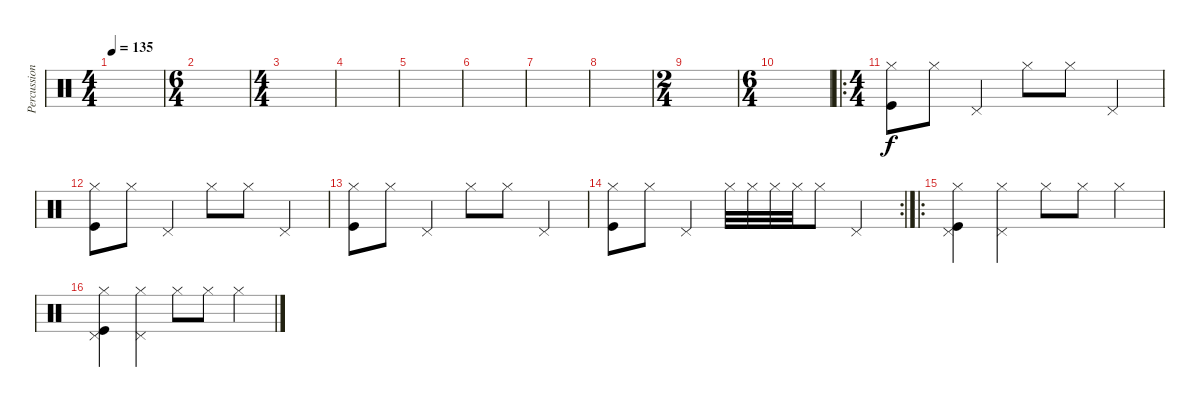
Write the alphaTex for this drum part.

\track ("Percussion" "Percussion") {instrument percussion}
\staff {score}
\articulation defaults
\ts (4 4)
\tempo 135
\clef neutral
\ks c
|
\ts (6 4)
|
\ts (4 4)
|
|
|
|
|
|
\ts (2 4)
|
\ts (6 4)
|
\ro
\ts (4 4)
("Hi-Hat (closed)" "Kick (hit)").8 "Hi-Hat (closed)".8 "Pedal Hi-Hat (hit)".4 "Hi-Hat (closed)".8 "Hi-Hat (closed)".8 "Pedal Hi-Hat (hit)".4 |
("Hi-Hat (closed)" "Kick (hit)").8 "Hi-Hat (closed)".8 "Pedal Hi-Hat (hit)".4 "Hi-Hat (closed)".8 "Hi-Hat (closed)".8 "Pedal Hi-Hat (hit)".4 |
("Hi-Hat (closed)" "Kick (hit)").8 "Hi-Hat (closed)".8 "Pedal Hi-Hat (hit)".4 "Hi-Hat (closed)".8 "Hi-Hat (closed)".8 "Pedal Hi-Hat (hit)".4 |
\rc 2
("Hi-Hat (closed)" "Kick (hit)").8 "Hi-Hat (closed)".8 "Pedal Hi-Hat (hit)".4 "Hi-Hat (closed)".32 "Hi-Hat (closed)".32 "Hi-Hat (closed)".32 "Hi-Hat (closed)".32 "Hi-Hat (closed)".8 "Pedal Hi-Hat (hit)".4 |
\ro
("Pedal Hi-Hat (hit)" "Hi-Hat (closed)" "Kick (hit)").4 ("Pedal Hi-Hat (hit)" "Hi-Hat (closed)").4 "Hi-Hat (closed)".8 "Hi-Hat (closed)".8 "Hi-Hat (closed)".4 |
("Pedal Hi-Hat (hit)" "Hi-Hat (closed)" "Kick (hit)").4 ("Pedal Hi-Hat (hit)" "Hi-Hat (closed)").4 "Hi-Hat (closed)".8 "Hi-Hat (closed)".8 "Hi-Hat (closed)".4
